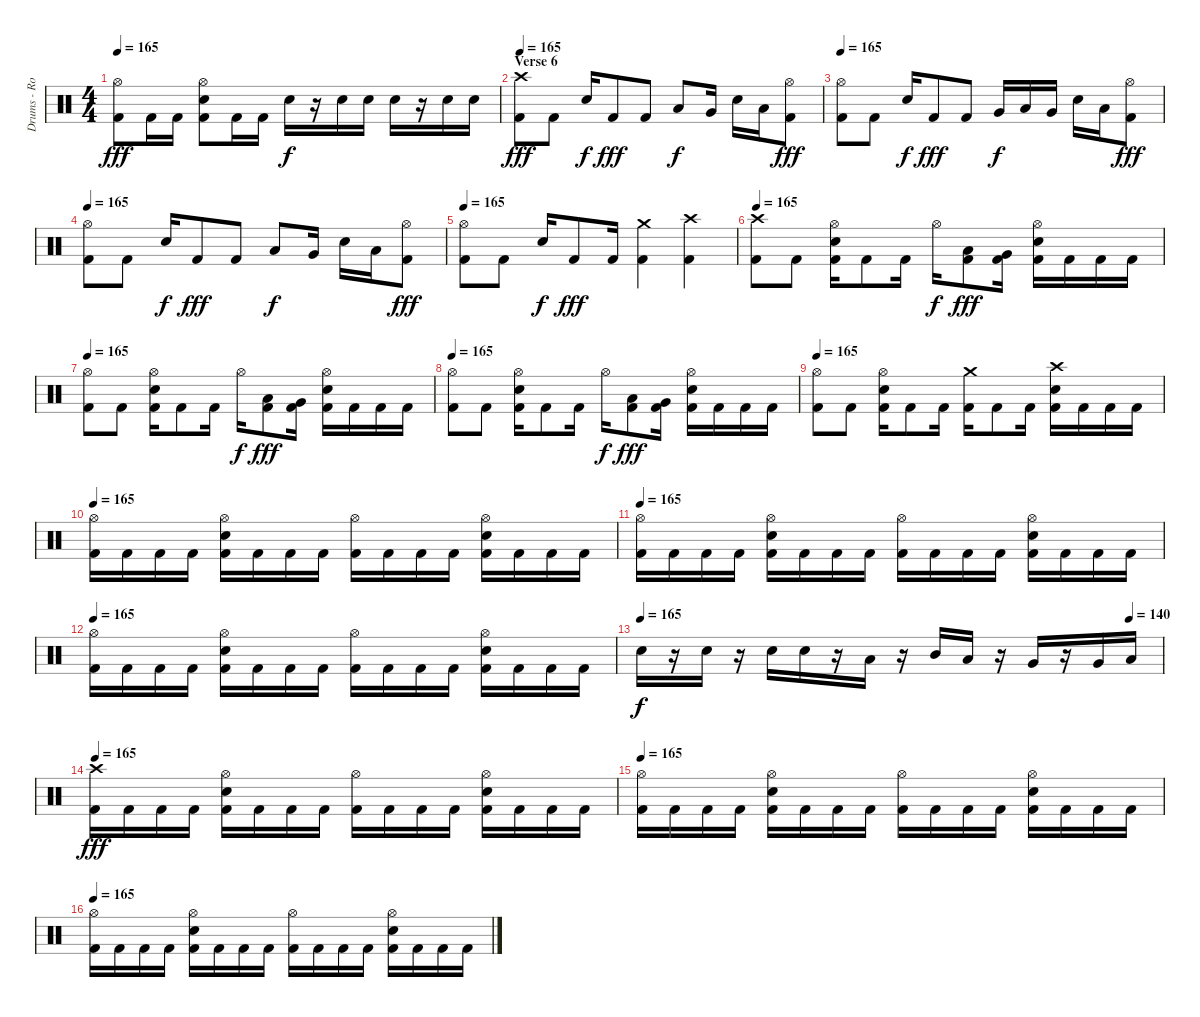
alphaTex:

\track ("Drums - Rodrigo" "Drums - Ro") {instrument percussion}
\staff {score}
\articulation defaults
\ts (4 4)
\tempo 165
\clef neutral
\ks c
("Hi-Hat (open)" "Kick (hit) 2").8{dy fff} "Kick (hit) 2".16 "Kick (hit) 2".16 ("Hi-Hat (open)" "Electric Snare (hit)" "Kick (hit) 2").8 "Kick (hit) 2".16 "Kick (hit) 2".16 "Electric Snare (hit)".16{dy f} r.16 "Electric Snare (hit)".16 "Electric Snare (hit)".16 "Electric Snare (hit)".16 r.16 "Electric Snare (hit)".16 "Electric Snare (hit)".16 |
\section ("" "Verse 6")
\tempo 165
("Crash high (hit)" "Kick (hit) 2").8{dy fff} "Kick (hit) 2".8 "Electric Snare (hit)".16{dy f} "Kick (hit) 2".8{dy fff} "Kick (hit) 2".8 "Low Tom (hit)".8{dy f} "Very Low Tom (hit)".16 "Electric Snare (hit)".16 "Low Floor Tom (hit)".16 ("Hi-Hat (open)" "Kick (hit) 2").8{dy fff} |
\tempo 165
("Hi-Hat (open)" "Kick (hit) 2").8 "Kick (hit) 2".8 "Electric Snare (hit)".16{dy f} "Kick (hit) 2".8{dy fff} "Kick (hit) 2".8 "Very Low Tom (hit)".16{dy f} "Low Tom (hit)".16 "Very Low Tom (hit)".16 "Electric Snare (hit)".16 "Low Floor Tom (hit)".16 ("Hi-Hat (open)" "Kick (hit) 2").8{dy fff} |
\tempo 165
("Hi-Hat (open)" "Kick (hit) 2").8 "Kick (hit) 2".8 "Electric Snare (hit)".16{dy f} "Kick (hit) 2".8{dy fff} "Kick (hit) 2".8 "Low Tom (hit)".8{dy f} "Very Low Tom (hit)".16 "Electric Snare (hit)".16 "Low Floor Tom (hit)".16 ("Hi-Hat (open)" "Kick (hit) 2").8{dy fff} |
\tempo 165
("Hi-Hat (open)" "Kick (hit) 2").8 "Kick (hit) 2".8 "Electric Snare (hit)".16{dy f} "Kick (hit) 2".8{dy fff} "Kick (hit) 2".16 ("Crash medium (hit)" "Kick (hit) 2").4 ("Crash high (hit)" "Kick (hit) 2").4 |
\tempo 165
("Crash high (hit)" "Kick (hit) 2").8 "Kick (hit) 2".8 ("Hi-Hat (open)" "Electric Snare (hit)" "Kick (hit) 2").16 "Kick (hit) 2".8 "Kick (hit) 2".16 "Hi-Hat (open)".16{dy f} ("Low Tom (hit)" "Kick (hit) 2").8{dy fff} ("Very Low Tom (hit)" "Kick (hit) 2").16 ("Hi-Hat (open)" "Electric Snare (hit)" "Kick (hit) 2").16 "Kick (hit) 2".16 "Kick (hit) 2".16 "Kick (hit) 2".16 |
\tempo 165
("Hi-Hat (open)" "Kick (hit) 2").8 "Kick (hit) 2".8 ("Hi-Hat (open)" "Electric Snare (hit)" "Kick (hit) 2").16 "Kick (hit) 2".8 "Kick (hit) 2".16 "Hi-Hat (open)".16{dy f} ("Low Tom (hit)" "Kick (hit) 2").8{dy fff} ("Very Low Tom (hit)" "Kick (hit) 2").16 ("Hi-Hat (open)" "Electric Snare (hit)" "Kick (hit) 2").16 "Kick (hit) 2".16 "Kick (hit) 2".16 "Kick (hit) 2".16 |
\tempo 165
("Hi-Hat (open)" "Kick (hit) 2").8 "Kick (hit) 2".8 ("Hi-Hat (open)" "Electric Snare (hit)" "Kick (hit) 2").16 "Kick (hit) 2".8 "Kick (hit) 2".16 "Hi-Hat (open)".16{dy f} ("Low Tom (hit)" "Kick (hit) 2").8{dy fff} ("Very Low Tom (hit)" "Kick (hit) 2").16 ("Hi-Hat (open)" "Electric Snare (hit)" "Kick (hit) 2").16 "Kick (hit) 2".16 "Kick (hit) 2".16 "Kick (hit) 2".16 |
\tempo 165
("Hi-Hat (open)" "Kick (hit) 2").8 "Kick (hit) 2".8 ("Hi-Hat (open)" "Electric Snare (hit)" "Kick (hit) 2").16 "Kick (hit) 2".8 "Kick (hit) 2".16 ("Crash medium (hit)" "Kick (hit) 2").16 "Kick (hit) 2".8 "Kick (hit) 2".16 ("Crash high (hit)" "Electric Snare (hit)" "Kick (hit) 2").16 "Kick (hit) 2".16 "Kick (hit) 2".16 "Kick (hit) 2".16 |
\tempo 165
("Hi-Hat (open)" "Kick (hit) 2").16 "Kick (hit) 2".16 "Kick (hit) 2".16 "Kick (hit) 2".16 ("Hi-Hat (open)" "Electric Snare (hit)" "Kick (hit) 2").16 "Kick (hit) 2".16 "Kick (hit) 2".16 "Kick (hit) 2".16 ("Hi-Hat (open)" "Kick (hit) 2").16 "Kick (hit) 2".16 "Kick (hit) 2".16 "Kick (hit) 2".16 ("Hi-Hat (open)" "Electric Snare (hit)" "Kick (hit) 2").16 "Kick (hit) 2".16 "Kick (hit) 2".16 "Kick (hit) 2".16 |
\tempo 165
("Hi-Hat (open)" "Kick (hit) 2").16 "Kick (hit) 2".16 "Kick (hit) 2".16 "Kick (hit) 2".16 ("Hi-Hat (open)" "Electric Snare (hit)" "Kick (hit) 2").16 "Kick (hit) 2".16 "Kick (hit) 2".16 "Kick (hit) 2".16 ("Hi-Hat (open)" "Kick (hit) 2").16 "Kick (hit) 2".16 "Kick (hit) 2".16 "Kick (hit) 2".16 ("Hi-Hat (open)" "Electric Snare (hit)" "Kick (hit) 2").16 "Kick (hit) 2".16 "Kick (hit) 2".16 "Kick (hit) 2".16 |
\tempo 165
("Hi-Hat (open)" "Kick (hit) 2").16 "Kick (hit) 2".16 "Kick (hit) 2".16 "Kick (hit) 2".16 ("Hi-Hat (open)" "Electric Snare (hit)" "Kick (hit) 2").16 "Kick (hit) 2".16 "Kick (hit) 2".16 "Kick (hit) 2".16 ("Hi-Hat (open)" "Kick (hit) 2").16 "Kick (hit) 2".16 "Kick (hit) 2".16 "Kick (hit) 2".16 ("Hi-Hat (open)" "Electric Snare (hit)" "Kick (hit) 2").16 "Kick (hit) 2".16 "Kick (hit) 2".16 "Kick (hit) 2".16 |
\tempo 165
\tempo (140 0.9375)
"Electric Snare (hit)".16{dy f} r.16 "Electric Snare (hit)".16 r.16 "Electric Snare (hit)".16 "Electric Snare (hit)".16 r.16 "Low Tom (hit)".16 r.16 "Mid Tom (hit)".16 "Low Tom (hit)".16 r.16 "Very Low Tom (hit)".16 r.16 "Very Low Tom (hit)".16 "Low Floor Tom (hit)".16 |
\tempo 165
("Crash high (hit)" "Kick (hit) 2").16{dy fff} "Kick (hit) 2".16 "Kick (hit) 2".16 "Kick (hit) 2".16 ("Hi-Hat (open)" "Electric Snare (hit)" "Kick (hit) 2").16 "Kick (hit) 2".16 "Kick (hit) 2".16 "Kick (hit) 2".16 ("Hi-Hat (open)" "Kick (hit) 2").16 "Kick (hit) 2".16 "Kick (hit) 2".16 "Kick (hit) 2".16 ("Hi-Hat (open)" "Electric Snare (hit)" "Kick (hit) 2").16 "Kick (hit) 2".16 "Kick (hit) 2".16 "Kick (hit) 2".16 |
\tempo 165
("Hi-Hat (open)" "Kick (hit) 2").16 "Kick (hit) 2".16 "Kick (hit) 2".16 "Kick (hit) 2".16 ("Hi-Hat (open)" "Electric Snare (hit)" "Kick (hit) 2").16 "Kick (hit) 2".16 "Kick (hit) 2".16 "Kick (hit) 2".16 ("Hi-Hat (open)" "Kick (hit) 2").16 "Kick (hit) 2".16 "Kick (hit) 2".16 "Kick (hit) 2".16 ("Hi-Hat (open)" "Electric Snare (hit)" "Kick (hit) 2").16 "Kick (hit) 2".16 "Kick (hit) 2".16 "Kick (hit) 2".16 |
\tempo 165
("Hi-Hat (open)" "Kick (hit) 2").16 "Kick (hit) 2".16 "Kick (hit) 2".16 "Kick (hit) 2".16 ("Hi-Hat (open)" "Electric Snare (hit)" "Kick (hit) 2").16 "Kick (hit) 2".16 "Kick (hit) 2".16 "Kick (hit) 2".16 ("Hi-Hat (open)" "Kick (hit) 2").16 "Kick (hit) 2".16 "Kick (hit) 2".16 "Kick (hit) 2".16 ("Hi-Hat (open)" "Electric Snare (hit)" "Kick (hit) 2").16 "Kick (hit) 2".16 "Kick (hit) 2".16 "Kick (hit) 2".16
